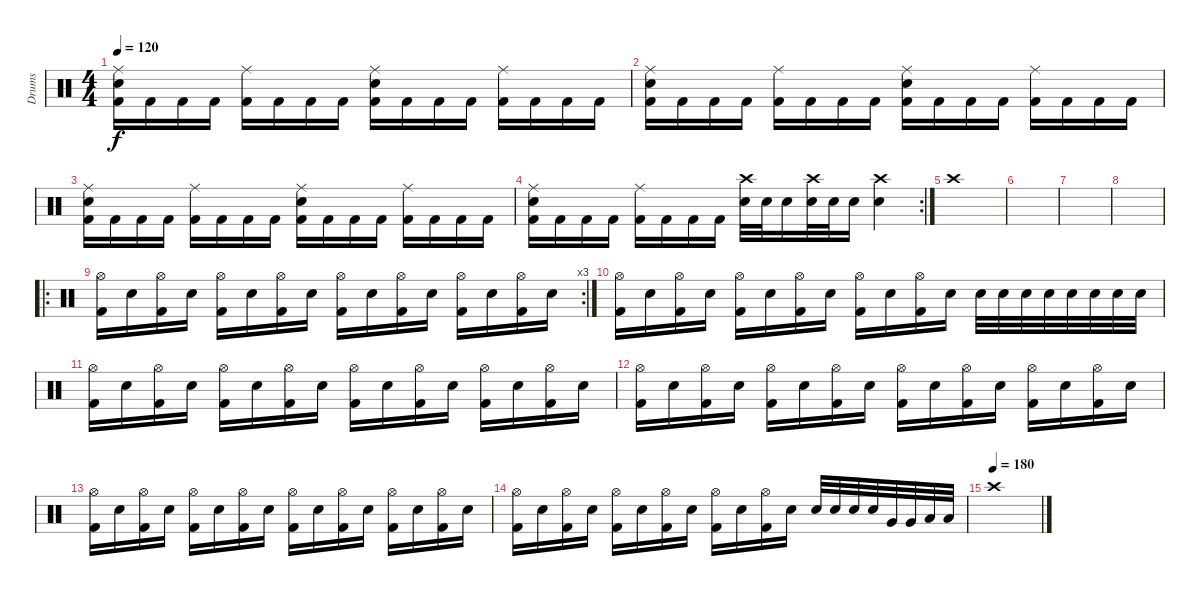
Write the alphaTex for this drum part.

\track ("Drums" "Drums") {instrument percussion}
\staff {score}
\articulation defaults
\ts (4 4)
\tempo 120
\clef neutral
\ks c
("Ride (middle)" "Electric Snare (hit)" "Kick (hit) 2").16{dy f} "Kick (hit) 2".16 "Kick (hit) 2".16 "Kick (hit) 2".16 ("Ride (middle)" "Kick (hit) 2").16 "Kick (hit) 2".16 "Kick (hit) 2".16 "Kick (hit) 2".16 ("Ride (middle)" "Electric Snare (hit)" "Kick (hit) 2").16 "Kick (hit) 2".16 "Kick (hit) 2".16 "Kick (hit) 2".16 ("Ride (middle)" "Kick (hit) 2").16 "Kick (hit) 2".16 "Kick (hit) 2".16 "Kick (hit) 2".16 |
("Ride (middle)" "Electric Snare (hit)" "Kick (hit) 2").16 "Kick (hit) 2".16 "Kick (hit) 2".16 "Kick (hit) 2".16 ("Ride (middle)" "Kick (hit) 2").16 "Kick (hit) 2".16 "Kick (hit) 2".16 "Kick (hit) 2".16 ("Ride (middle)" "Electric Snare (hit)" "Kick (hit) 2").16 "Kick (hit) 2".16 "Kick (hit) 2".16 "Kick (hit) 2".16 ("Ride (middle)" "Kick (hit) 2").16 "Kick (hit) 2".16 "Kick (hit) 2".16 "Kick (hit) 2".16 |
("Ride (middle)" "Electric Snare (hit)" "Kick (hit) 2").16 "Kick (hit) 2".16 "Kick (hit) 2".16 "Kick (hit) 2".16 ("Ride (middle)" "Kick (hit) 2").16 "Kick (hit) 2".16 "Kick (hit) 2".16 "Kick (hit) 2".16 ("Ride (middle)" "Electric Snare (hit)" "Kick (hit) 2").16 "Kick (hit) 2".16 "Kick (hit) 2".16 "Kick (hit) 2".16 ("Ride (middle)" "Kick (hit) 2").16 "Kick (hit) 2".16 "Kick (hit) 2".16 "Kick (hit) 2".16 |
\rc 2
("Ride (middle)" "Electric Snare (hit)" "Kick (hit) 2").16 "Kick (hit) 2".16 "Kick (hit) 2".16 "Kick (hit) 2".16 ("Ride (middle)" "Kick (hit) 2").16 "Kick (hit) 2".16 "Kick (hit) 2".16 "Kick (hit) 2".16 ("Crash high (hit)" "Electric Snare (hit)").32 "Electric Snare (hit)".32 "Electric Snare (hit)".16 ("Crash high (hit)" "Electric Snare (hit)").32 "Electric Snare (hit)".32 "Electric Snare (hit)".16 ("Crash high (hit)" "Electric Snare (hit)").4 |
"Crash high (hit)".1 |
|
|
|
\ro
\rc 3
("Hi-Hat (open)" "Kick (hit) 2").16 "Electric Snare (hit)".16 ("Hi-Hat (open)" "Kick (hit) 2").16 "Electric Snare (hit)".16 ("Hi-Hat (open)" "Kick (hit) 2").16 "Electric Snare (hit)".16 ("Hi-Hat (open)" "Kick (hit) 2").16 "Electric Snare (hit)".16 ("Hi-Hat (open)" "Kick (hit) 2").16 "Electric Snare (hit)".16 ("Hi-Hat (open)" "Kick (hit) 2").16 "Electric Snare (hit)".16 ("Hi-Hat (open)" "Kick (hit) 2").16 "Electric Snare (hit)".16 ("Hi-Hat (open)" "Kick (hit) 2").16 "Electric Snare (hit)".16 |
("Hi-Hat (open)" "Kick (hit) 2").16 "Electric Snare (hit)".16 ("Hi-Hat (open)" "Kick (hit) 2").16 "Electric Snare (hit)".16 ("Hi-Hat (open)" "Kick (hit) 2").16 "Electric Snare (hit)".16 ("Hi-Hat (open)" "Kick (hit) 2").16 "Electric Snare (hit)".16 ("Hi-Hat (open)" "Kick (hit) 2").16 "Electric Snare (hit)".16 ("Hi-Hat (open)" "Kick (hit) 2").16 "Electric Snare (hit)".16 "Electric Snare (hit)".32 "Electric Snare (hit)".32 "Electric Snare (hit)".32 "Electric Snare (hit)".32 "Electric Snare (hit)".32 "Electric Snare (hit)".32 "Electric Snare (hit)".32 "Electric Snare (hit)".32 |
("Hi-Hat (open)" "Kick (hit) 2").16 "Electric Snare (hit)".16 ("Hi-Hat (open)" "Kick (hit) 2").16 "Electric Snare (hit)".16 ("Hi-Hat (open)" "Kick (hit) 2").16 "Electric Snare (hit)".16 ("Hi-Hat (open)" "Kick (hit) 2").16 "Electric Snare (hit)".16 ("Hi-Hat (open)" "Kick (hit) 2").16 "Electric Snare (hit)".16 ("Hi-Hat (open)" "Kick (hit) 2").16 "Electric Snare (hit)".16 ("Hi-Hat (open)" "Kick (hit) 2").16 "Electric Snare (hit)".16 ("Hi-Hat (open)" "Kick (hit) 2").16 "Electric Snare (hit)".16 |
("Hi-Hat (open)" "Kick (hit) 2").16 "Electric Snare (hit)".16 ("Hi-Hat (open)" "Kick (hit) 2").16 "Electric Snare (hit)".16 ("Hi-Hat (open)" "Kick (hit) 2").16 "Electric Snare (hit)".16 ("Hi-Hat (open)" "Kick (hit) 2").16 "Electric Snare (hit)".16 ("Hi-Hat (open)" "Kick (hit) 2").16 "Electric Snare (hit)".16 ("Hi-Hat (open)" "Kick (hit) 2").16 "Electric Snare (hit)".16 ("Hi-Hat (open)" "Kick (hit) 2").16 "Electric Snare (hit)".16 ("Hi-Hat (open)" "Kick (hit) 2").16 "Electric Snare (hit)".16 |
("Hi-Hat (open)" "Kick (hit) 2").16 "Electric Snare (hit)".16 ("Hi-Hat (open)" "Kick (hit) 2").16 "Electric Snare (hit)".16 ("Hi-Hat (open)" "Kick (hit) 2").16 "Electric Snare (hit)".16 ("Hi-Hat (open)" "Kick (hit) 2").16 "Electric Snare (hit)".16 ("Hi-Hat (open)" "Kick (hit) 2").16 "Electric Snare (hit)".16 ("Hi-Hat (open)" "Kick (hit) 2").16 "Electric Snare (hit)".16 ("Hi-Hat (open)" "Kick (hit) 2").16 "Electric Snare (hit)".16 ("Hi-Hat (open)" "Kick (hit) 2").16 "Electric Snare (hit)".16 |
("Hi-Hat (open)" "Kick (hit) 2").16 "Electric Snare (hit)".16 ("Hi-Hat (open)" "Kick (hit) 2").16 "Electric Snare (hit)".16 ("Hi-Hat (open)" "Kick (hit) 2").16 "Electric Snare (hit)".16 ("Hi-Hat (open)" "Kick (hit) 2").16 "Electric Snare (hit)".16 ("Hi-Hat (open)" "Kick (hit) 2").16 "Electric Snare (hit)".16 ("Hi-Hat (open)" "Kick (hit) 2").16 "Electric Snare (hit)".16 "Electric Snare (hit)".32 "Electric Snare (hit)".32 "Electric Snare (hit)".32 "Electric Snare (hit)".32 "Very Low Tom (hit)".32 "Very Low Tom (hit)".32 "Low Floor Tom (hit)".32 "Low Floor Tom (hit)".32 |
\tempo (180)
"Crash high (hit)".1
